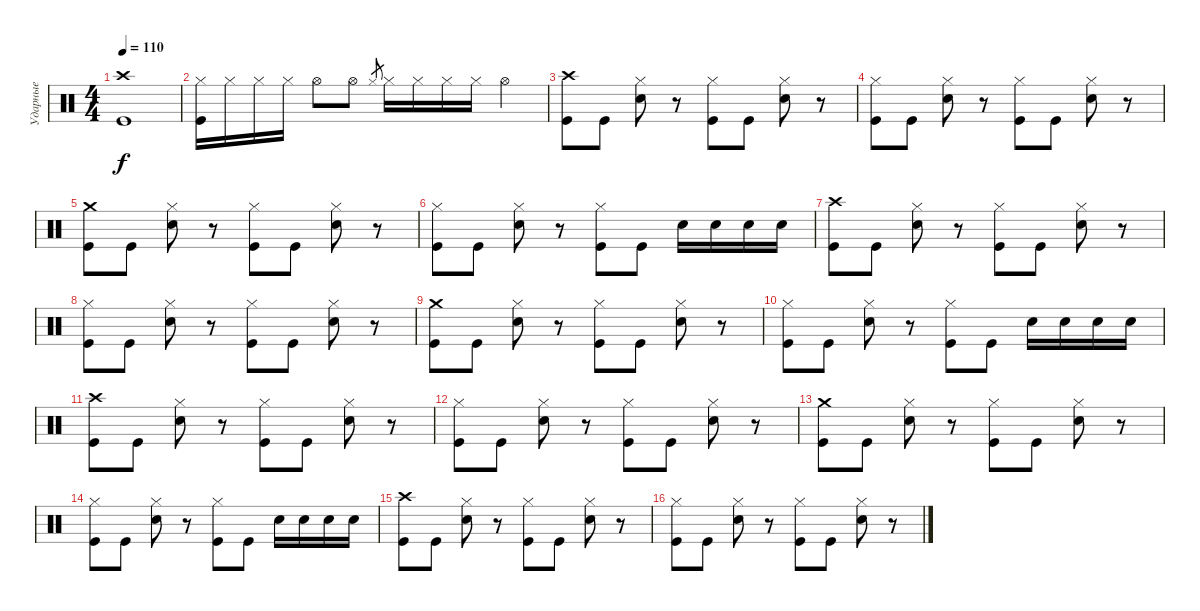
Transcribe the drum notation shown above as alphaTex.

\track ("Ударные" "Ударные") {solo instrument percussion}
\staff {score}
\articulation defaults
\ts (4 4)
\tempo 110
\clef neutral
\ks c
("Kick (hit)" "Crash high (hit)").1{dy f} |
("Hi-Hat (closed)" "Kick (hit)").16 "Hi-Hat (closed)".16 "Hi-Hat (closed)".16 "Hi-Hat (closed)".16 "Hi-Hat (open)".8 "Hi-Hat (open)".8 "Hi-Hat (closed)".8{gr} "Hi-Hat (closed)".16 "Hi-Hat (closed)".16 "Hi-Hat (closed)".16 "Hi-Hat (closed)".16 "Hi-Hat (open)".4 |
("Kick (hit)" "Crash high (hit)").8 "Kick (hit)".8 ("Snare (hit) 2" "Hi-Hat (closed)").8 r.8 ("Kick (hit)" "Hi-Hat (closed)").8 "Kick (hit)".8 ("Snare (hit) 2" "Hi-Hat (closed)").8 r.8 |
("Kick (hit)" "Hi-Hat (closed)").8 "Kick (hit)".8 ("Snare (hit) 2" "Hi-Hat (closed)").8 r.8 ("Kick (hit)" "Hi-Hat (closed)").8 "Kick (hit)".8 ("Snare (hit) 2" "Hi-Hat (closed)").8 r.8 |
("Kick (hit)" "Crash medium (hit)").8 "Kick (hit)".8 ("Snare (hit) 2" "Hi-Hat (closed)").8 r.8 ("Kick (hit)" "Hi-Hat (closed)").8 "Kick (hit)".8 ("Snare (hit) 2" "Hi-Hat (closed)").8 r.8 |
("Kick (hit)" "Hi-Hat (closed)").8 "Kick (hit)".8 ("Snare (hit) 2" "Hi-Hat (closed)").8 r.8 ("Kick (hit)" "Hi-Hat (closed)").8 "Kick (hit)".8 "Snare (hit) 2".16 "Snare (hit) 2".16 "Snare (hit) 2".16 "Snare (hit) 2".16 |
("Kick (hit)" "Crash high (hit)").8 "Kick (hit)".8 ("Snare (hit) 2" "Hi-Hat (closed)").8 r.8 ("Kick (hit)" "Hi-Hat (closed)").8 "Kick (hit)".8 ("Snare (hit) 2" "Hi-Hat (closed)").8 r.8 |
("Kick (hit)" "Hi-Hat (closed)").8 "Kick (hit)".8 ("Snare (hit) 2" "Hi-Hat (closed)").8 r.8 ("Kick (hit)" "Hi-Hat (closed)").8 "Kick (hit)".8 ("Snare (hit) 2" "Hi-Hat (closed)").8 r.8 |
("Kick (hit)" "Crash medium (hit)").8 "Kick (hit)".8 ("Snare (hit) 2" "Hi-Hat (closed)").8 r.8 ("Kick (hit)" "Hi-Hat (closed)").8 "Kick (hit)".8 ("Snare (hit) 2" "Hi-Hat (closed)").8 r.8 |
("Kick (hit)" "Hi-Hat (closed)").8 "Kick (hit)".8 ("Snare (hit) 2" "Hi-Hat (closed)").8 r.8 ("Kick (hit)" "Hi-Hat (closed)").8 "Kick (hit)".8 "Snare (hit) 2".16 "Snare (hit) 2".16 "Snare (hit) 2".16 "Snare (hit) 2".16 |
("Kick (hit)" "Crash high (hit)").8 "Kick (hit)".8 ("Snare (hit) 2" "Hi-Hat (closed)").8 r.8 ("Kick (hit)" "Hi-Hat (closed)").8 "Kick (hit)".8 ("Snare (hit) 2" "Hi-Hat (closed)").8 r.8 |
("Kick (hit)" "Hi-Hat (closed)").8 "Kick (hit)".8 ("Snare (hit) 2" "Hi-Hat (closed)").8 r.8 ("Kick (hit)" "Hi-Hat (closed)").8 "Kick (hit)".8 ("Snare (hit) 2" "Hi-Hat (closed)").8 r.8 |
("Kick (hit)" "Crash medium (hit)").8 "Kick (hit)".8 ("Snare (hit) 2" "Hi-Hat (closed)").8 r.8 ("Kick (hit)" "Hi-Hat (closed)").8 "Kick (hit)".8 ("Snare (hit) 2" "Hi-Hat (closed)").8 r.8 |
("Kick (hit)" "Hi-Hat (closed)").8 "Kick (hit)".8 ("Snare (hit) 2" "Hi-Hat (closed)").8 r.8 ("Kick (hit)" "Hi-Hat (closed)").8 "Kick (hit)".8 "Snare (hit) 2".16 "Snare (hit) 2".16 "Snare (hit) 2".16 "Snare (hit) 2".16 |
("Kick (hit)" "Crash high (hit)").8 "Kick (hit)".8 ("Snare (hit) 2" "Hi-Hat (closed)").8 r.8 ("Kick (hit)" "Hi-Hat (closed)").8 "Kick (hit)".8 ("Snare (hit) 2" "Hi-Hat (closed)").8 r.8 |
("Kick (hit)" "Hi-Hat (closed)").8 "Kick (hit)".8 ("Snare (hit) 2" "Hi-Hat (closed)").8 r.8 ("Kick (hit)" "Hi-Hat (closed)").8 "Kick (hit)".8 ("Snare (hit) 2" "Hi-Hat (closed)").8 r.8
